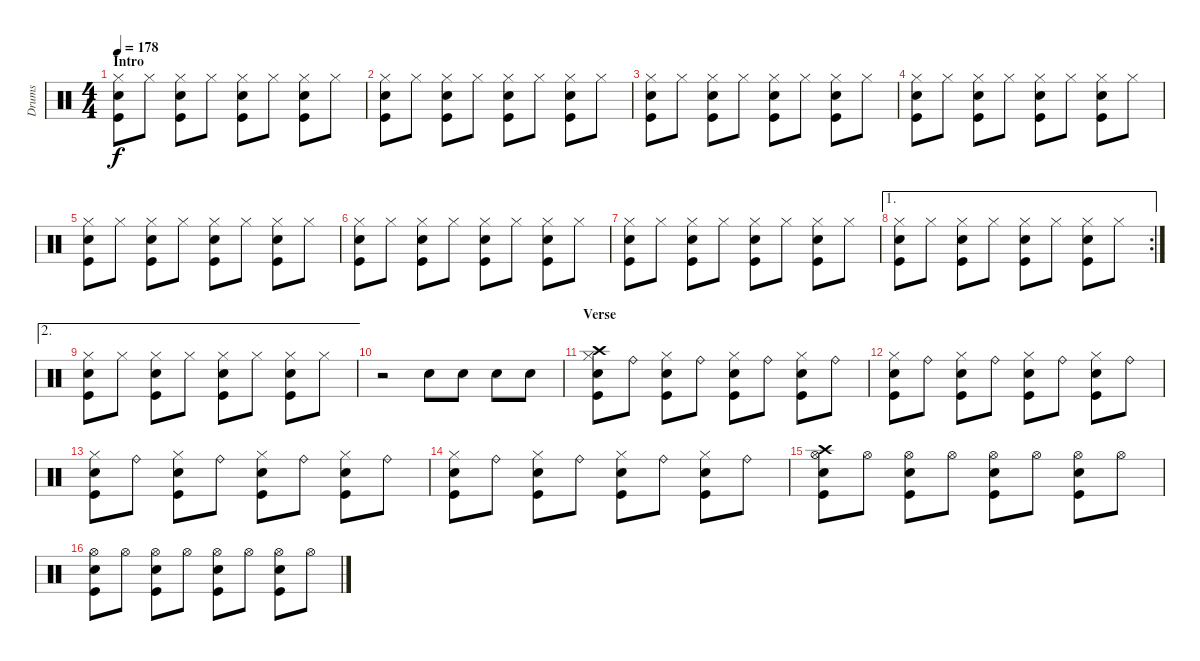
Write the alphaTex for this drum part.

\track ("Drums" "Drums") {instrument percussion}
\staff {score}
\articulation defaults
\ts (4 4)
\section ("" "Intro")
\tempo 178
\clef neutral
\ks c
("Electric Snare (hit)" "Hi-Hat (closed)" "Kick (hit)").8{dy f} "Hi-Hat (closed)".8 ("Electric Snare (hit)" "Hi-Hat (closed)" "Kick (hit)").8 "Hi-Hat (closed)".8 ("Electric Snare (hit)" "Hi-Hat (closed)" "Kick (hit)").8 "Hi-Hat (closed)".8 ("Electric Snare (hit)" "Hi-Hat (closed)" "Kick (hit)").8 "Hi-Hat (closed)".8 |
("Electric Snare (hit)" "Hi-Hat (closed)" "Kick (hit)").8 "Hi-Hat (closed)".8 ("Electric Snare (hit)" "Hi-Hat (closed)" "Kick (hit)").8 "Hi-Hat (closed)".8 ("Electric Snare (hit)" "Hi-Hat (closed)" "Kick (hit)").8 "Hi-Hat (closed)".8 ("Electric Snare (hit)" "Hi-Hat (closed)" "Kick (hit)").8 "Hi-Hat (closed)".8 |
("Electric Snare (hit)" "Hi-Hat (closed)" "Kick (hit)").8 "Hi-Hat (closed)".8 ("Electric Snare (hit)" "Hi-Hat (closed)" "Kick (hit)").8 "Hi-Hat (closed)".8 ("Electric Snare (hit)" "Hi-Hat (closed)" "Kick (hit)").8 "Hi-Hat (closed)".8 ("Electric Snare (hit)" "Hi-Hat (closed)" "Kick (hit)").8 "Hi-Hat (closed)".8 |
("Electric Snare (hit)" "Hi-Hat (closed)" "Kick (hit)").8 "Hi-Hat (closed)".8 ("Electric Snare (hit)" "Hi-Hat (closed)" "Kick (hit)").8 "Hi-Hat (closed)".8 ("Electric Snare (hit)" "Hi-Hat (closed)" "Kick (hit)").8 "Hi-Hat (closed)".8 ("Electric Snare (hit)" "Hi-Hat (closed)" "Kick (hit)").8 "Hi-Hat (closed)".8 |
("Electric Snare (hit)" "Hi-Hat (closed)" "Kick (hit)").8 "Hi-Hat (closed)".8 ("Electric Snare (hit)" "Hi-Hat (closed)" "Kick (hit)").8 "Hi-Hat (closed)".8 ("Electric Snare (hit)" "Hi-Hat (closed)" "Kick (hit)").8 "Hi-Hat (closed)".8 ("Electric Snare (hit)" "Hi-Hat (closed)" "Kick (hit)").8 "Hi-Hat (closed)".8 |
("Electric Snare (hit)" "Hi-Hat (closed)" "Kick (hit)").8 "Hi-Hat (closed)".8 ("Electric Snare (hit)" "Hi-Hat (closed)" "Kick (hit)").8 "Hi-Hat (closed)".8 ("Electric Snare (hit)" "Hi-Hat (closed)" "Kick (hit)").8 "Hi-Hat (closed)".8 ("Electric Snare (hit)" "Hi-Hat (closed)" "Kick (hit)").8 "Hi-Hat (closed)".8 |
("Electric Snare (hit)" "Hi-Hat (closed)" "Kick (hit)").8 "Hi-Hat (closed)".8 ("Electric Snare (hit)" "Hi-Hat (closed)" "Kick (hit)").8 "Hi-Hat (closed)".8 ("Electric Snare (hit)" "Hi-Hat (closed)" "Kick (hit)").8 "Hi-Hat (closed)".8 ("Electric Snare (hit)" "Hi-Hat (closed)" "Kick (hit)").8 "Hi-Hat (closed)".8 |
\ae 1
\rc 2
("Electric Snare (hit)" "Hi-Hat (closed)" "Kick (hit)").8 "Hi-Hat (closed)".8 ("Electric Snare (hit)" "Hi-Hat (closed)" "Kick (hit)").8 "Hi-Hat (closed)".8 ("Electric Snare (hit)" "Hi-Hat (closed)" "Kick (hit)").8 "Hi-Hat (closed)".8 ("Electric Snare (hit)" "Hi-Hat (closed)" "Kick (hit)").8 "Hi-Hat (closed)".8 |
\ae 2
("Electric Snare (hit)" "Hi-Hat (closed)" "Kick (hit)").8 "Hi-Hat (closed)".8 ("Electric Snare (hit)" "Hi-Hat (closed)" "Kick (hit)").8 "Hi-Hat (closed)".8 ("Electric Snare (hit)" "Hi-Hat (closed)" "Kick (hit)").8 "Hi-Hat (closed)".8 ("Electric Snare (hit)" "Hi-Hat (closed)" "Kick (hit)").8 "Hi-Hat (closed)".8 |
r.2 "Electric Snare (hit)".8 "Electric Snare (hit)".8 "Electric Snare (hit)".8 "Electric Snare (hit)".8 |
\section ("" "Verse")
("Crash high (hit)" "Electric Snare (hit)" "Hi-Hat (closed)" "Kick (hit)").8 "Ride (bell)".8 ("Electric Snare (hit)" "Hi-Hat (closed)" "Kick (hit)").8 "Ride (bell)".8 ("Electric Snare (hit)" "Hi-Hat (closed)" "Kick (hit)").8 "Ride (bell)".8 ("Electric Snare (hit)" "Hi-Hat (closed)" "Kick (hit)").8 "Ride (bell)".8 |
("Electric Snare (hit)" "Hi-Hat (closed)" "Kick (hit)").8 "Ride (bell)".8 ("Electric Snare (hit)" "Hi-Hat (closed)" "Kick (hit)").8 "Ride (bell)".8 ("Electric Snare (hit)" "Hi-Hat (closed)" "Kick (hit)").8 "Ride (bell)".8 ("Electric Snare (hit)" "Hi-Hat (closed)" "Kick (hit)").8 "Ride (bell)".8 |
("Electric Snare (hit)" "Hi-Hat (closed)" "Kick (hit)").8 "Ride (bell)".8 ("Electric Snare (hit)" "Hi-Hat (closed)" "Kick (hit)").8 "Ride (bell)".8 ("Electric Snare (hit)" "Hi-Hat (closed)" "Kick (hit)").8 "Ride (bell)".8 ("Electric Snare (hit)" "Hi-Hat (closed)" "Kick (hit)").8 "Ride (bell)".8 |
("Electric Snare (hit)" "Hi-Hat (closed)" "Kick (hit)").8 "Ride (bell)".8 ("Electric Snare (hit)" "Hi-Hat (closed)" "Kick (hit)").8 "Ride (bell)".8 ("Electric Snare (hit)" "Hi-Hat (closed)" "Kick (hit)").8 "Ride (bell)".8 ("Electric Snare (hit)" "Hi-Hat (closed)" "Kick (hit)").8 "Ride (bell)".8 |
("Crash high (hit)" "Electric Snare (hit)" "Hi-Hat (open)" "Kick (hit)").8 "Hi-Hat (open)".8 ("Electric Snare (hit)" "Hi-Hat (open)" "Kick (hit)").8 "Hi-Hat (open)".8 ("Electric Snare (hit)" "Hi-Hat (open)" "Kick (hit)").8 "Hi-Hat (open)".8 ("Electric Snare (hit)" "Hi-Hat (open)" "Kick (hit)").8 "Hi-Hat (open)".8 |
("Electric Snare (hit)" "Hi-Hat (open)" "Kick (hit)").8 "Hi-Hat (open)".8 ("Electric Snare (hit)" "Hi-Hat (open)" "Kick (hit)").8 "Hi-Hat (open)".8 ("Electric Snare (hit)" "Hi-Hat (open)" "Kick (hit)").8 "Hi-Hat (open)".8 ("Electric Snare (hit)" "Hi-Hat (open)" "Kick (hit)").8 "Hi-Hat (open)".8
